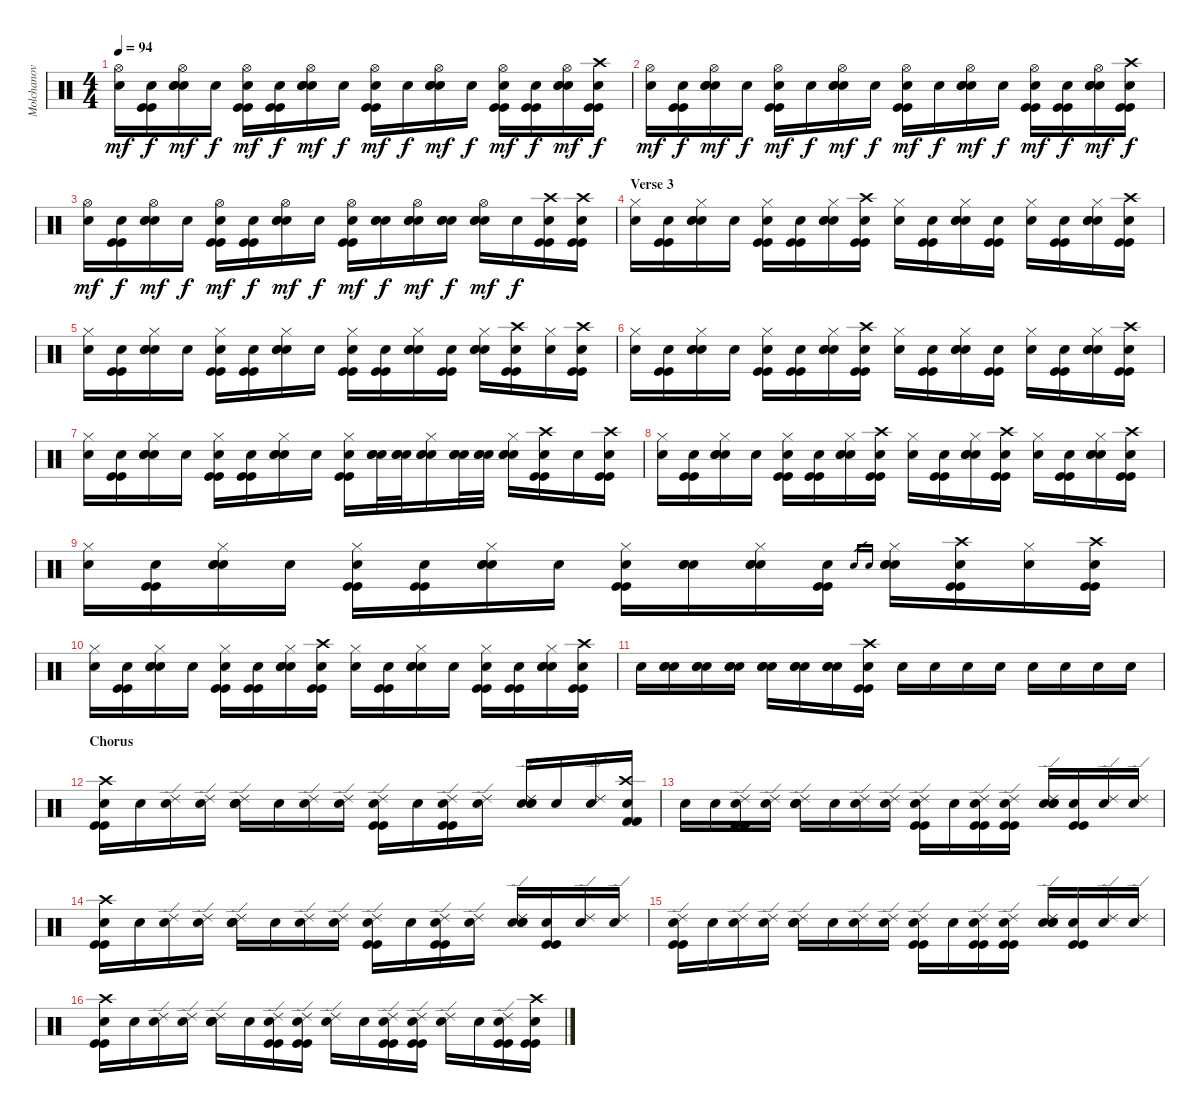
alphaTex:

\track ("Molchanov" "Molchanov") {instrument percussion}
\staff {score}
\articulation defaults
\ts (4 4)
\tempo 94
\clef neutral
\ks c
("Hi-Hat (open)" "Snare (hit)"{x}).16{dy mf} ("Kick (hit)" "Kick (hit)" "Snare (hit)"{x}).16{dy f} ("Hi-Hat (open)" "Electric Snare (hit)" "Electric Snare (hit)" "Snare (hit)"{x}).16{dy mf} "Snare (hit)"{x}.16{dy f} ("Hi-Hat (open)" "Kick (hit)" "Kick (hit)" "Snare (hit)"{x}).16{dy mf} ("Kick (hit)" "Kick (hit)" "Snare (hit)"{x}).16{dy f} ("Hi-Hat (open)" "Electric Snare (hit)" "Electric Snare (hit)" "Snare (hit)"{x}).16{dy mf} "Snare (hit)"{x}.16{dy f} ("Hi-Hat (open)" "Kick (hit)" "Kick (hit)" "Snare (hit)"{x}).16{dy mf} "Snare (hit)"{x}.16{dy f} ("Hi-Hat (open)" "Electric Snare (hit)" "Electric Snare (hit)" "Snare (hit)"{x}).16{dy mf} "Snare (hit)"{x}.16{dy f} ("Hi-Hat (open)" "Kick (hit)" "Kick (hit)" "Snare (hit)"{x}).16{dy mf} ("Kick (hit)" "Kick (hit)" "Snare (hit)"{x}).16{dy f} ("Hi-Hat (open)" "Electric Snare (hit)" "Electric Snare (hit)" "Snare (hit)"{x}).16{dy mf} ("Crash high (hit)" "Kick (hit)" "Kick (hit)" "Snare (hit)"{x}).16{dy f} |
("Hi-Hat (open)" "Snare (hit)"{x}).16{dy mf} ("Kick (hit)" "Kick (hit)" "Snare (hit)"{x}).16{dy f} ("Hi-Hat (open)" "Electric Snare (hit)" "Electric Snare (hit)" "Snare (hit)"{x}).16{dy mf} "Snare (hit)"{x}.16{dy f} ("Hi-Hat (open)" "Kick (hit)" "Kick (hit)" "Snare (hit)"{x}).16{dy mf} "Snare (hit)"{x}.16{dy f} ("Hi-Hat (open)" "Electric Snare (hit)" "Electric Snare (hit)" "Snare (hit)"{x}).16{dy mf} "Snare (hit)"{x}.16{dy f} ("Hi-Hat (open)" "Kick (hit)" "Kick (hit)" "Snare (hit)"{x}).16{dy mf} "Snare (hit)"{x}.16{dy f} ("Hi-Hat (open)" "Electric Snare (hit)" "Electric Snare (hit)" "Snare (hit)"{x}).16{dy mf} "Snare (hit)"{x}.16{dy f} ("Hi-Hat (open)" "Kick (hit)" "Kick (hit)" "Snare (hit)"{x}).16{dy mf} ("Kick (hit)" "Kick (hit)" "Snare (hit)"{x}).16{dy f} ("Hi-Hat (open)" "Electric Snare (hit)" "Electric Snare (hit)" "Snare (hit)"{x}).16{dy mf} ("Crash high (hit)" "Kick (hit)" "Kick (hit)" "Snare (hit)"{x}).16{dy f} |
("Hi-Hat (open)" "Snare (hit)"{x}).16{dy mf} ("Kick (hit)" "Kick (hit)" "Snare (hit)"{x}).16{dy f} ("Hi-Hat (open)" "Electric Snare (hit)" "Electric Snare (hit)" "Snare (hit)"{x}).16{dy mf} "Snare (hit)"{x}.16{dy f} ("Hi-Hat (open)" "Kick (hit)" "Kick (hit)" "Snare (hit)"{x}).16{dy mf} ("Kick (hit)" "Kick (hit)" "Snare (hit)"{x}).16{dy f} ("Hi-Hat (open)" "Electric Snare (hit)" "Electric Snare (hit)" "Snare (hit)"{x}).16{dy mf} "Snare (hit)"{x}.16{dy f} ("Hi-Hat (open)" "Kick (hit)" "Kick (hit)" "Snare (hit)"{x}).16{dy mf} ("Electric Snare (hit)" "Electric Snare (hit)" "Snare (hit)"{x}).16{dy f} ("Hi-Hat (open)" "Electric Snare (hit)" "Electric Snare (hit)" "Snare (hit)"{x}).16{dy mf} ("Electric Snare (hit)" "Electric Snare (hit)" "Snare (hit)"{x}).16{dy f} ("Hi-Hat (open)" "Electric Snare (hit)" "Electric Snare (hit)" "Snare (hit)"{x}).16{dy mf} "Snare (hit)"{x}.16{dy f} ("Crash high (hit)" "Kick (hit)" "Kick (hit)" "Snare (hit)"{x}).16 ("Crash high (hit)" "Kick (hit)" "Kick (hit)" "Snare (hit)"{x}).16 |
\section ("" "Verse 3")
("Hi-Hat (closed)" "Snare (hit)"{x}).16 ("Kick (hit)" "Kick (hit)" "Snare (hit)"{x}).16 ("Hi-Hat (closed)" "Electric Snare (hit)" "Electric Snare (hit)" "Snare (hit)"{x}).16 "Snare (hit)"{x}.16 ("Hi-Hat (closed)" "Kick (hit)" "Kick (hit)" "Snare (hit)"{x}).16 ("Kick (hit)" "Kick (hit)" "Snare (hit)"{x}).16 ("Hi-Hat (closed)" "Electric Snare (hit)" "Electric Snare (hit)" "Snare (hit)"{x}).16 ("Crash high (hit)" "Kick (hit)" "Kick (hit)" "Snare (hit)"{x}).16 ("Hi-Hat (closed)" "Snare (hit)"{x}).16 ("Kick (hit)" "Kick (hit)" "Snare (hit)"{x}).16 ("Hi-Hat (closed)" "Electric Snare (hit)" "Electric Snare (hit)" "Snare (hit)"{x}).16 ("Kick (hit)" "Kick (hit)" "Snare (hit)"{x}).16 ("Hi-Hat (closed)" "Snare (hit)"{x}).16 ("Kick (hit)" "Kick (hit)" "Snare (hit)"{x}).16 ("Hi-Hat (closed)" "Electric Snare (hit)" "Electric Snare (hit)" "Snare (hit)"{x}).16 ("Crash high (hit)" "Kick (hit)" "Kick (hit)" "Snare (hit)"{x}).16 |
("Hi-Hat (closed)" "Snare (hit)"{x}).16 ("Kick (hit)" "Kick (hit)" "Snare (hit)"{x}).16 ("Hi-Hat (closed)" "Electric Snare (hit)" "Electric Snare (hit)" "Snare (hit)"{x}).16 "Snare (hit)"{x}.16 ("Hi-Hat (closed)" "Kick (hit)" "Kick (hit)" "Snare (hit)"{x}).16 ("Kick (hit)" "Kick (hit)" "Snare (hit)"{x}).16 ("Hi-Hat (closed)" "Electric Snare (hit)" "Electric Snare (hit)" "Snare (hit)"{x}).16 "Snare (hit)"{x}.16 ("Hi-Hat (closed)" "Kick (hit)" "Kick (hit)" "Snare (hit)"{x}).16 ("Kick (hit)" "Kick (hit)" "Snare (hit)"{x}).16 ("Hi-Hat (closed)" "Electric Snare (hit)" "Electric Snare (hit)" "Snare (hit)"{x}).16 ("Kick (hit)" "Kick (hit)" "Snare (hit)"{x}).16 ("Hi-Hat (closed)" "Electric Snare (hit)" "Electric Snare (hit)" "Snare (hit)"{x}).16 ("Crash high (hit)" "Kick (hit)" "Kick (hit)" "Snare (hit)"{x}).16 ("Hi-Hat (closed)" "Snare (hit)"{x}).16 ("Crash high (hit)" "Kick (hit)" "Kick (hit)" "Snare (hit)"{x}).16 |
("Hi-Hat (closed)" "Snare (hit)"{x}).16 ("Kick (hit)" "Kick (hit)" "Snare (hit)"{x}).16 ("Hi-Hat (closed)" "Electric Snare (hit)" "Electric Snare (hit)" "Snare (hit)"{x}).16 "Snare (hit)"{x}.16 ("Hi-Hat (closed)" "Kick (hit)" "Kick (hit)" "Snare (hit)"{x}).16 ("Kick (hit)" "Kick (hit)" "Snare (hit)"{x}).16 ("Hi-Hat (closed)" "Electric Snare (hit)" "Electric Snare (hit)" "Snare (hit)"{x}).16 ("Crash high (hit)" "Kick (hit)" "Kick (hit)" "Snare (hit)"{x}).16 ("Hi-Hat (closed)" "Snare (hit)"{x}).16 ("Kick (hit)" "Kick (hit)" "Snare (hit)"{x}).16 ("Hi-Hat (closed)" "Electric Snare (hit)" "Electric Snare (hit)" "Snare (hit)"{x}).16 ("Kick (hit)" "Kick (hit)" "Snare (hit)"{x}).16 ("Hi-Hat (closed)" "Snare (hit)"{x}).16 ("Kick (hit)" "Kick (hit)" "Snare (hit)"{x}).16 ("Hi-Hat (closed)" "Electric Snare (hit)" "Electric Snare (hit)" "Snare (hit)"{x}).16 ("Crash high (hit)" "Kick (hit)" "Kick (hit)" "Snare (hit)"{x}).16 |
("Hi-Hat (closed)" "Snare (hit)"{x}).16 ("Kick (hit)" "Kick (hit)" "Snare (hit)"{x}).16 ("Hi-Hat (closed)" "Electric Snare (hit)" "Electric Snare (hit)" "Snare (hit)"{x}).16 "Snare (hit)"{x}.16 ("Hi-Hat (closed)" "Kick (hit)" "Kick (hit)" "Snare (hit)"{x}).16 ("Kick (hit)" "Kick (hit)" "Snare (hit)"{x}).16 ("Hi-Hat (closed)" "Electric Snare (hit)" "Electric Snare (hit)" "Snare (hit)"{x}).16 "Snare (hit)"{x}.16 ("Hi-Hat (closed)" "Kick (hit)" "Kick (hit)" "Snare (hit)"{x}).16 ("Electric Snare (hit)" "Electric Snare (hit)" "Snare (hit)"{x}).32 ("Electric Snare (hit)" "Electric Snare (hit)" "Snare (hit)"{x}).32 ("Hi-Hat (closed)" "Electric Snare (hit)" "Electric Snare (hit)" "Snare (hit)"{x}).16 ("Electric Snare (hit)" "Electric Snare (hit)" "Snare (hit)"{x}).32 ("Electric Snare (hit)" "Electric Snare (hit)" "Snare (hit)"{x}).32 ("Hi-Hat (closed)" "Electric Snare (hit)" "Electric Snare (hit)" "Snare (hit)"{x}).16 ("Crash high (hit)" "Kick (hit)" "Kick (hit)" "Snare (hit)"{x}).16 "Snare (hit)"{x}.16 ("Crash high (hit)" "Kick (hit)" "Kick (hit)" "Snare (hit)"{x}).16 |
("Hi-Hat (closed)" "Snare (hit)"{x}).16 ("Kick (hit)" "Kick (hit)" "Snare (hit)"{x}).16 ("Hi-Hat (closed)" "Electric Snare (hit)" "Electric Snare (hit)" "Snare (hit)"{x}).16 "Snare (hit)"{x}.16 ("Hi-Hat (closed)" "Kick (hit)" "Kick (hit)" "Snare (hit)"{x}).16 ("Kick (hit)" "Kick (hit)" "Snare (hit)"{x}).16 ("Hi-Hat (closed)" "Electric Snare (hit)" "Electric Snare (hit)" "Snare (hit)"{x}).16 ("Crash high (hit)" "Kick (hit)" "Kick (hit)" "Snare (hit)"{x}).16 ("Hi-Hat (closed)" "Snare (hit)"{x}).16 ("Kick (hit)" "Kick (hit)" "Snare (hit)"{x}).16 ("Hi-Hat (closed)" "Electric Snare (hit)" "Electric Snare (hit)" "Snare (hit)"{x}).16 ("Crash high (hit)" "Kick (hit)" "Kick (hit)" "Snare (hit)"{x}).16 ("Hi-Hat (closed)" "Snare (hit)"{x}).16 ("Kick (hit)" "Kick (hit)" "Snare (hit)"{x}).16 ("Hi-Hat (closed)" "Electric Snare (hit)" "Electric Snare (hit)" "Snare (hit)"{x}).16 ("Crash high (hit)" "Kick (hit)" "Kick (hit)" "Snare (hit)"{x}).16 |
("Hi-Hat (closed)" "Snare (hit)"{x}).16 ("Kick (hit)" "Kick (hit)" "Snare (hit)"{x}).16 ("Hi-Hat (closed)" "Electric Snare (hit)" "Electric Snare (hit)" "Snare (hit)"{x}).16 "Snare (hit)"{x}.16 ("Hi-Hat (closed)" "Kick (hit)" "Kick (hit)" "Snare (hit)"{x}).16 ("Kick (hit)" "Kick (hit)" "Snare (hit)"{x}).16 ("Hi-Hat (closed)" "Electric Snare (hit)" "Electric Snare (hit)" "Snare (hit)"{x}).16 "Snare (hit)"{x}.16 ("Hi-Hat (closed)" "Kick (hit)" "Kick (hit)" "Snare (hit)"{x}).16 ("Electric Snare (hit)" "Electric Snare (hit)" "Snare (hit)"{x}).16 ("Hi-Hat (closed)" "Electric Snare (hit)" "Electric Snare (hit)" "Snare (hit)"{x}).16 ("Kick (hit)" "Kick (hit)" "Snare (hit)"{x}).16 "Electric Snare (hit)".16{gr} "Electric Snare (hit)".16{gr} ("Hi-Hat (closed)" "Electric Snare (hit)" "Electric Snare (hit)" "Snare (hit)"{x}).16 ("Crash high (hit)" "Kick (hit)" "Kick (hit)" "Snare (hit)"{x}).16 ("Hi-Hat (closed)" "Snare (hit)"{x}).16 ("Crash high (hit)" "Kick (hit)" "Kick (hit)" "Snare (hit)"{x}).16 |
("Hi-Hat (closed)" "Snare (hit)"{x}).16 ("Kick (hit)" "Kick (hit)" "Snare (hit)"{x}).16 ("Hi-Hat (closed)" "Electric Snare (hit)" "Electric Snare (hit)" "Snare (hit)"{x}).16 "Snare (hit)"{x}.16 ("Hi-Hat (closed)" "Kick (hit)" "Kick (hit)" "Snare (hit)"{x}).16 ("Kick (hit)" "Kick (hit)" "Snare (hit)"{x}).16 ("Hi-Hat (closed)" "Electric Snare (hit)" "Electric Snare (hit)" "Snare (hit)"{x}).16 ("Crash high (hit)" "Kick (hit)" "Kick (hit)" "Snare (hit)"{x}).16 ("Hi-Hat (closed)" "Snare (hit)"{x}).16 ("Kick (hit)" "Kick (hit)" "Snare (hit)"{x}).16 ("Hi-Hat (closed)" "Electric Snare (hit)" "Electric Snare (hit)" "Snare (hit)"{x}).16 "Snare (hit)"{x}.16 ("Hi-Hat (closed)" "Kick (hit)" "Kick (hit)" "Snare (hit)"{x}).16 ("Kick (hit)" "Kick (hit)" "Snare (hit)"{x}).16 ("Hi-Hat (closed)" "Electric Snare (hit)" "Electric Snare (hit)" "Snare (hit)"{x}).16 ("Crash high (hit)" "Kick (hit)" "Kick (hit)" "Snare (hit)"{x}).16 |
"Snare (hit)"{x}.16 ("Electric Snare (hit)" "Electric Snare (hit)" "Snare (hit)"{x}).16 ("Electric Snare (hit)" "Electric Snare (hit)" "Snare (hit)"{x}).16 ("Electric Snare (hit)" "Electric Snare (hit)" "Snare (hit)"{x}).16 ("Electric Snare (hit)" "Electric Snare (hit)" "Snare (hit)"{x}).16 ("Electric Snare (hit)" "Electric Snare (hit)" "Snare (hit)"{x}).16 ("Electric Snare (hit)" "Electric Snare (hit)" "Snare (hit)"{x}).16 ("Crash high (hit)" "Kick (hit)" "Kick (hit)" "Snare (hit)"{x}).16 "Snare (hit)"{x}.16 "Snare (hit)"{x}.16 "Snare (hit)"{x}.16 "Snare (hit)"{x}.16 "Snare (hit)"{x}.16 "Snare (hit)"{x}.16 "Snare (hit)"{x}.16 "Snare (hit)"{x}.16 |
\section ("" "Chorus")
("Crash high (hit)" "Kick (hit)" "Kick (hit)" "Snare (hit)"{x}).16 "Snare (hit)"{x}.16 ("Ride (edge) 2" "Snare (hit)"{x}).16 ("Ride (edge) 2" "Snare (hit)"{x}).16 ("Ride (edge) 2" "Electric Snare (hit)" "Electric Snare (hit)" "Snare (hit)"{x}).16 "Snare (hit)"{x}.16 ("Ride (edge) 2" "Snare (hit)"{x}).16 ("Ride (edge) 2" "Snare (hit)"{x}).16 ("Ride (edge) 2" "Kick (hit)" "Kick (hit)" "Snare (hit)"{x}).16 "Snare (hit)"{x}.16 ("Ride (edge) 2" "Kick (hit)" "Kick (hit)" "Snare (hit)"{x}).16 ("Ride (edge) 2" "Snare (hit)"{x}).16 ("Ride (edge) 2" "Electric Snare (hit)" "Electric Snare (hit)" "Snare (hit)"{x}).16 "Snare (hit)"{x}.16 ("Ride (edge) 2" "Snare (hit)"{x}).16 ("Crash high (hit)" "Kick (hit) 2" "Kick (hit) 2" "Snare (hit)"{x}).16 |
"Snare (hit)"{x}.16 "Snare (hit)"{x}.16 ("Ride (edge) 2" "Kick (hit)" "Kick (hit)" "Snare (hit)"{x}).16 ("Ride (edge) 2" "Snare (hit)"{x}).16 ("Ride (edge) 2" "Electric Snare (hit)" "Electric Snare (hit)" "Snare (hit)"{x}).16 "Snare (hit)"{x}.16 ("Ride (edge) 2" "Snare (hit)"{x}).16 ("Ride (edge) 2" "Snare (hit)"{x}).16 ("Ride (edge) 2" "Kick (hit)" "Kick (hit)" "Snare (hit)"{x}).16 "Snare (hit)"{x}.16 ("Ride (edge) 2" "Kick (hit)" "Kick (hit)" "Snare (hit)"{x}).16 ("Ride (edge) 2" "Kick (hit)" "Kick (hit)" "Snare (hit)"{x}).16 ("Ride (edge) 2" "Electric Snare (hit)" "Electric Snare (hit)" "Snare (hit)"{x}).16 ("Kick (hit)" "Kick (hit)" "Snare (hit)"{x}).16 ("Ride (edge) 2" "Snare (hit)"{x}).16 ("Ride (edge) 2" "Snare (hit)"{x}).16 |
("Crash high (hit)" "Kick (hit)" "Kick (hit)" "Snare (hit)"{x}).16 "Snare (hit)"{x}.16 ("Ride (edge) 2" "Snare (hit)"{x}).16 ("Ride (edge) 2" "Snare (hit)"{x}).16 ("Ride (edge) 2" "Electric Snare (hit)" "Electric Snare (hit)" "Snare (hit)"{x}).16 "Snare (hit)"{x}.16 ("Ride (edge) 2" "Snare (hit)"{x}).16 ("Ride (edge) 2" "Snare (hit)"{x}).16 ("Ride (edge) 2" "Kick (hit)" "Kick (hit)" "Snare (hit)"{x}).16 "Snare (hit)"{x}.16 ("Ride (edge) 2" "Kick (hit)" "Kick (hit)" "Snare (hit)"{x}).16 ("Ride (edge) 2" "Snare (hit)"{x}).16 ("Ride (edge) 2" "Electric Snare (hit)" "Electric Snare (hit)" "Snare (hit)"{x}).16 ("Kick (hit)" "Kick (hit)" "Snare (hit)"{x}).16 ("Ride (edge) 2" "Snare (hit)"{x}).16 ("Ride (edge) 2" "Snare (hit)"{x}).16 |
("Ride (edge) 2" "Kick (hit)" "Kick (hit)" "Snare (hit)"{x}).16 "Snare (hit)"{x}.16 ("Ride (edge) 2" "Snare (hit)"{x}).16 ("Ride (edge) 2" "Snare (hit)"{x}).16 ("Ride (edge) 2" "Electric Snare (hit)" "Electric Snare (hit)" "Snare (hit)"{x}).16 "Snare (hit)"{x}.16 ("Ride (edge) 2" "Snare (hit)"{x}).16 ("Ride (edge) 2" "Snare (hit)"{x}).16 ("Ride (edge) 2" "Kick (hit)" "Kick (hit)" "Snare (hit)"{x}).16 "Snare (hit)"{x}.16 ("Ride (edge) 2" "Kick (hit)" "Kick (hit)" "Snare (hit)"{x}).16 ("Ride (edge) 2" "Kick (hit)" "Kick (hit)" "Snare (hit)"{x}).16 ("Ride (edge) 2" "Electric Snare (hit)" "Electric Snare (hit)" "Snare (hit)"{x}).16 ("Kick (hit)" "Kick (hit)" "Snare (hit)"{x}).16 ("Ride (edge) 2" "Snare (hit)"{x}).16 ("Ride (edge) 2" "Snare (hit)"{x}).16 |
("Crash high (hit)" "Kick (hit)" "Kick (hit)" "Snare (hit)"{x}).16 "Snare (hit)"{x}.16 ("Ride (edge) 2" "Snare (hit)"{x}).16 ("Ride (edge) 2" "Snare (hit)"{x}).16 ("Ride (edge) 2" "Electric Snare (hit)" "Electric Snare (hit)" "Snare (hit)"{x}).16 "Snare (hit)"{x}.16 ("Ride (edge) 2" "Kick (hit)" "Kick (hit)" "Snare (hit)"{x}).16 ("Ride (edge) 2" "Kick (hit)" "Kick (hit)" "Snare (hit)"{x}).16 ("Ride (edge) 2" "Snare (hit)"{x}).16 "Snare (hit)"{x}.16 ("Ride (edge) 2" "Kick (hit)" "Kick (hit)" "Snare (hit)"{x}).16 ("Ride (edge) 2" "Kick (hit)" "Kick (hit)" "Snare (hit)"{x}).16 ("Ride (edge) 2" "Snare (hit)"{x}).16 "Snare (hit)"{x}.16 ("Ride (edge) 2" "Kick (hit)" "Kick (hit)" "Snare (hit)"{x}).16 ("Crash high (hit)" "Kick (hit)" "Kick (hit)" "Snare (hit)"{x}).16
